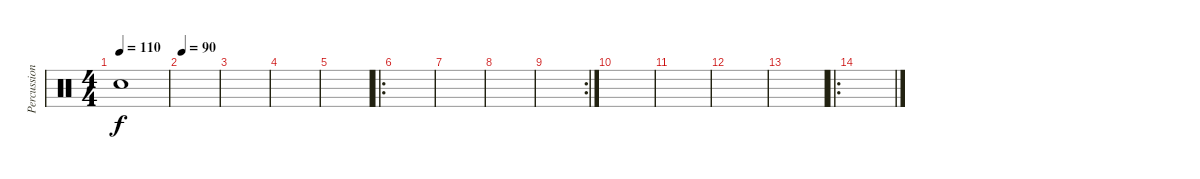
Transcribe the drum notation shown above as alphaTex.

\track ("Percussions" "Percussion") {instrument percussion}
\staff {score}
\articulation defaults
\ts (4 4)
\tempo 110
\clef neutral
\ks c "Snare (hit)"{t}.1{dy f}
|
\tempo 90
|
|
|
|
\ro
|
|
|
\rc 2
|
|
|
|
|
\ro
